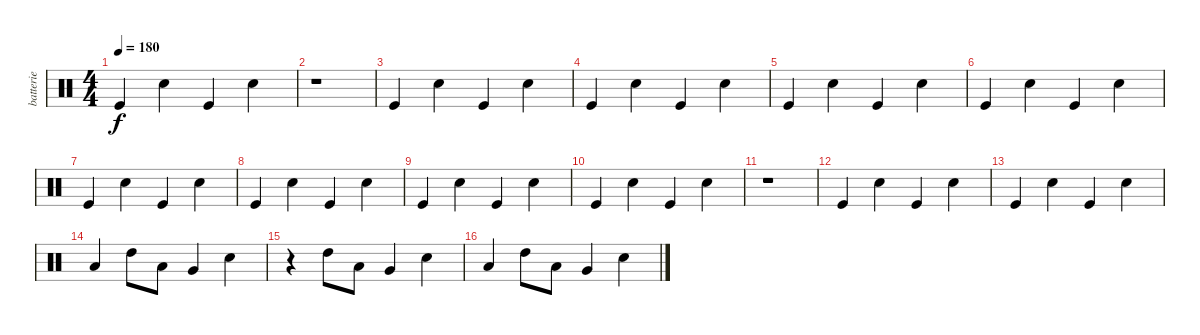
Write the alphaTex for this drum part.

\track ("batterie" "batterie") {instrument percussion}
\staff {score}
\articulation defaults
\ts (4 4)
\tempo 180
\clef neutral
\ks c "Kick (hit)".4{dy f} "Snare (hit) 2".4 "Kick (hit)".4 "Snare (hit) 2".4
|
r.1 |
"Kick (hit)".4 "Snare (hit) 2".4 "Kick (hit)".4 "Snare (hit) 2".4 |
"Kick (hit)".4 "Snare (hit) 2".4 "Kick (hit)".4 "Snare (hit) 2".4 |
"Kick (hit)".4 "Snare (hit) 2".4 "Kick (hit)".4 "Snare (hit) 2".4 |
"Kick (hit)".4 "Snare (hit) 2".4 "Kick (hit)".4 "Snare (hit) 2".4 |
"Kick (hit)".4 "Snare (hit) 2".4 "Kick (hit)".4 "Snare (hit) 2".4 |
"Kick (hit)".4 "Snare (hit) 2".4 "Kick (hit)".4 "Snare (hit) 2".4 |
"Kick (hit)".4 "Snare (hit) 2".4 "Kick (hit)".4 "Snare (hit) 2".4 |
"Kick (hit)".4 "Snare (hit) 2".4 "Kick (hit)".4 "Snare (hit) 2".4 |
r.1 |
"Kick (hit)".4 "Snare (hit) 2".4 "Kick (hit)".4 "Snare (hit) 2".4 |
"Kick (hit)".4 "Snare (hit) 2".4 "Kick (hit)".4 "Snare (hit) 2".4 |
"Low Floor Tom (hit)".4 "High Tom (hit)".8 "Low Tom (hit)".8 "Very Low Tom (hit)".4 "Snare (hit) 2".4 |
r.4 "High Tom (hit)".8 "Low Tom (hit)".8 "Very Low Tom (hit)".4 "Snare (hit) 2".4 |
"Low Floor Tom (hit)".4 "High Tom (hit)".8 "Low Tom (hit)".8 "Very Low Tom (hit)".4 "Snare (hit) 2".4
